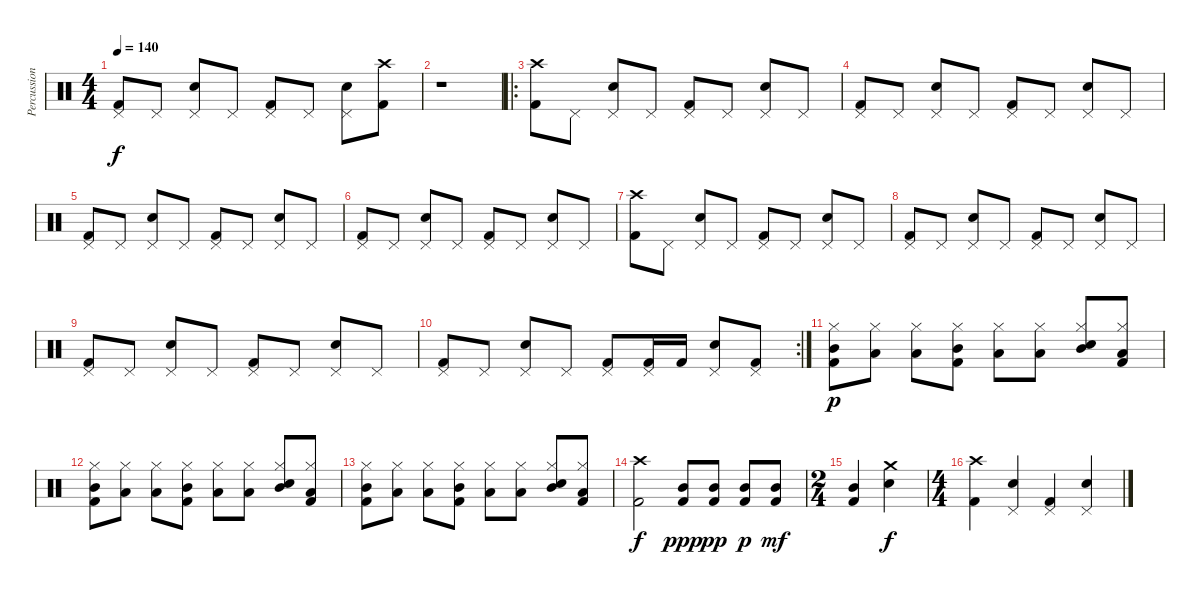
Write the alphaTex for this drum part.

\track ("Percussion" "Percussion") {instrument percussion}
\staff {score}
\articulation defaults
\ts (4 4)
\tempo 140
\clef neutral
\ks c
("Pedal Hi-Hat (hit)" "Kick (hit) 2").8{dy f} "Pedal Hi-Hat (hit)".8 ("Pedal Hi-Hat (hit)" "Snare (hit) 2").8 "Pedal Hi-Hat (hit)".8 ("Pedal Hi-Hat (hit)" "Kick (hit) 2").8 "Pedal Hi-Hat (hit)".8 ("Pedal Hi-Hat (hit)" "Snare (hit) 2").8 ("Crash high (hit)" "Kick (hit) 2").8 |
r.1 |
\ro
("Crash high (hit)" "Kick (hit) 2").8 "Pedal Hi-Hat (hit)".8 ("Pedal Hi-Hat (hit)" "Snare (hit) 2").8 "Pedal Hi-Hat (hit)".8 ("Pedal Hi-Hat (hit)" "Kick (hit) 2").8 "Pedal Hi-Hat (hit)".8 ("Pedal Hi-Hat (hit)" "Snare (hit) 2").8 "Pedal Hi-Hat (hit)".8 |
("Pedal Hi-Hat (hit)" "Kick (hit) 2").8 "Pedal Hi-Hat (hit)".8 ("Pedal Hi-Hat (hit)" "Snare (hit) 2").8 "Pedal Hi-Hat (hit)".8 ("Pedal Hi-Hat (hit)" "Kick (hit) 2").8 "Pedal Hi-Hat (hit)".8 ("Pedal Hi-Hat (hit)" "Snare (hit) 2").8 "Pedal Hi-Hat (hit)".8 |
("Pedal Hi-Hat (hit)" "Kick (hit) 2").8 "Pedal Hi-Hat (hit)".8 ("Pedal Hi-Hat (hit)" "Snare (hit) 2").8 "Pedal Hi-Hat (hit)".8 ("Pedal Hi-Hat (hit)" "Kick (hit) 2").8 "Pedal Hi-Hat (hit)".8 ("Pedal Hi-Hat (hit)" "Snare (hit) 2").8 "Pedal Hi-Hat (hit)".8 |
("Pedal Hi-Hat (hit)" "Kick (hit) 2").8 "Pedal Hi-Hat (hit)".8 ("Pedal Hi-Hat (hit)" "Snare (hit) 2").8 "Pedal Hi-Hat (hit)".8 ("Pedal Hi-Hat (hit)" "Kick (hit) 2").8 "Pedal Hi-Hat (hit)".8 ("Pedal Hi-Hat (hit)" "Snare (hit) 2").8 "Pedal Hi-Hat (hit)".8 |
("Crash high (hit)" "Kick (hit) 2").8 "Pedal Hi-Hat (hit)".8 ("Pedal Hi-Hat (hit)" "Snare (hit) 2").8 "Pedal Hi-Hat (hit)".8 ("Pedal Hi-Hat (hit)" "Kick (hit) 2").8 "Pedal Hi-Hat (hit)".8 ("Pedal Hi-Hat (hit)" "Snare (hit) 2").8 "Pedal Hi-Hat (hit)".8 |
("Pedal Hi-Hat (hit)" "Kick (hit) 2").8 "Pedal Hi-Hat (hit)".8 ("Pedal Hi-Hat (hit)" "Snare (hit) 2").8 "Pedal Hi-Hat (hit)".8 ("Pedal Hi-Hat (hit)" "Kick (hit) 2").8 "Pedal Hi-Hat (hit)".8 ("Pedal Hi-Hat (hit)" "Snare (hit) 2").8 "Pedal Hi-Hat (hit)".8 |
("Pedal Hi-Hat (hit)" "Kick (hit) 2").8 "Pedal Hi-Hat (hit)".8 ("Pedal Hi-Hat (hit)" "Snare (hit) 2").8 "Pedal Hi-Hat (hit)".8 ("Pedal Hi-Hat (hit)" "Kick (hit) 2").8 "Pedal Hi-Hat (hit)".8 ("Pedal Hi-Hat (hit)" "Snare (hit) 2").8 "Pedal Hi-Hat (hit)".8 |
\rc 2
("Pedal Hi-Hat (hit)" "Kick (hit) 2").8 "Pedal Hi-Hat (hit)".8 ("Pedal Hi-Hat (hit)" "Snare (hit) 2").8 "Pedal Hi-Hat (hit)".8 ("Pedal Hi-Hat (hit)" "Kick (hit) 2").8 ("Pedal Hi-Hat (hit)" "Kick (hit) 2").16 "Kick (hit) 2".16 ("Pedal Hi-Hat (hit)" "Snare (hit) 2").8 ("Pedal Hi-Hat (hit)" "Kick (hit) 2").8 |
("Hi-Hat (closed)" "Mid Tom (hit)" "Kick (hit) 2").8{dy p} ("Hi-Hat (closed)" "Low Tom (hit)").8 ("Hi-Hat (closed)" "Low Tom (hit)").8 ("Hi-Hat (closed)" "Mid Tom (hit)" "Kick (hit) 2").8 ("Hi-Hat (closed)" "Low Tom (hit)").8 ("Hi-Hat (closed)" "Low Tom (hit)").8 ("Hi-Hat (closed)" "Mid Tom (hit)" "Snare (hit) 2").8 ("Hi-Hat (closed)" "Low Tom (hit)" "Kick (hit) 2").8 |
("Hi-Hat (closed)" "Mid Tom (hit)" "Kick (hit) 2").8 ("Hi-Hat (closed)" "Low Tom (hit)").8 ("Hi-Hat (closed)" "Low Tom (hit)").8 ("Hi-Hat (closed)" "Mid Tom (hit)" "Kick (hit) 2").8 ("Hi-Hat (closed)" "Low Tom (hit)").8 ("Hi-Hat (closed)" "Low Tom (hit)").8 ("Hi-Hat (closed)" "Mid Tom (hit)" "Snare (hit) 2").8 ("Hi-Hat (closed)" "Low Tom (hit)" "Kick (hit) 2").8 |
("Hi-Hat (closed)" "Mid Tom (hit)" "Kick (hit) 2").8 ("Hi-Hat (closed)" "Low Tom (hit)").8 ("Hi-Hat (closed)" "Low Tom (hit)").8 ("Hi-Hat (closed)" "Mid Tom (hit)" "Kick (hit) 2").8 ("Hi-Hat (closed)" "Low Tom (hit)").8 ("Hi-Hat (closed)" "Low Tom (hit)").8 ("Hi-Hat (closed)" "Mid Tom (hit)" "Snare (hit) 2").8 ("Hi-Hat (closed)" "Low Tom (hit)" "Kick (hit) 2").8 |
("Crash high (hit)" "Kick (hit) 2").2{dy f} ("Mid Tom (hit)" "Kick (hit) 2").8{dy ppp} ("Mid Tom (hit)" "Kick (hit) 2").8{dy pp} ("Mid Tom (hit)" "Kick (hit) 2").8{dy p} ("Mid Tom (hit)" "Kick (hit) 2").8{dy mf} |
\ts (2 4)
("Mid Tom (hit)" "Kick (hit) 2").4 ("Crash medium (hit)" "Snare (hit) 2").4{dy f} |
\ts (4 4)
("Crash high (hit)" "Kick (hit) 2").4 ("Pedal Hi-Hat (hit)" "Snare (hit) 2").4 ("Pedal Hi-Hat (hit)" "Kick (hit) 2").4 ("Pedal Hi-Hat (hit)" "Snare (hit) 2").4
